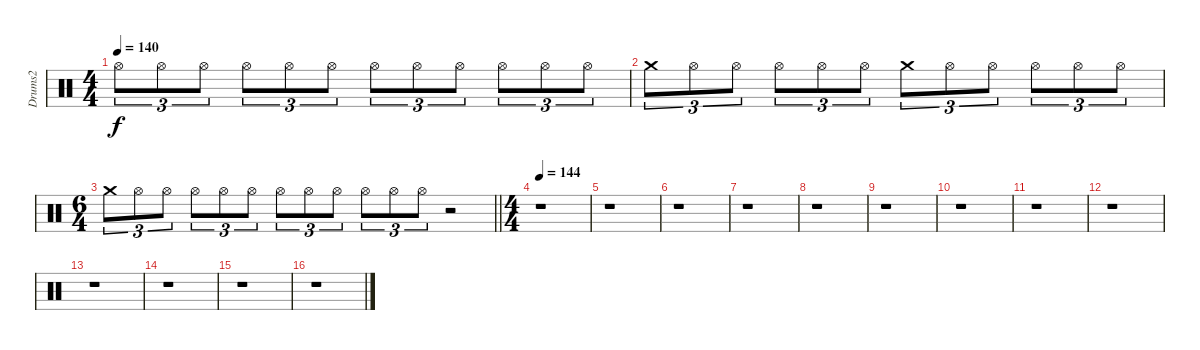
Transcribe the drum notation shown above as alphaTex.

\track ("Drums2" "Drums2") {instrument percussion}
\staff {score}
\articulation defaults
\ts (4 4)
\tempo 140
\clef neutral
\ks c "Hi-Hat (open)".8{tu (3 2) dy f} "Hi-Hat (open)".8{tu (3 2)} "Hi-Hat (open)".8{tu (3 2)} "Hi-Hat (open)".8{tu (3 2)} "Hi-Hat (open)".8{tu (3 2)} "Hi-Hat (open)".8{tu (3 2)} "Hi-Hat (open)".8{tu (3 2)} "Hi-Hat (open)".8{tu (3 2)} "Hi-Hat (open)".8{tu (3 2)} "Hi-Hat (open)".8{tu (3 2)} "Hi-Hat (open)".8{tu (3 2)} "Hi-Hat (open)".8{tu (3 2)}
|
"Crash medium (hit)".8{tu (3 2)} "Hi-Hat (open)".8{tu (3 2)} "Hi-Hat (open)".8{tu (3 2)} "Hi-Hat (open)".8{tu (3 2)} "Hi-Hat (open)".8{tu (3 2)} "Hi-Hat (open)".8{tu (3 2)} "Crash medium (hit)".8{tu (3 2)} "Hi-Hat (open)".8{tu (3 2)} "Hi-Hat (open)".8{tu (3 2)} "Hi-Hat (open)".8{tu (3 2)} "Hi-Hat (open)".8{tu (3 2)} "Hi-Hat (open)".8{tu (3 2)} |
\ts (6 4)
\barLineRight lightlight "Crash medium (hit)".8{tu (3 2)} "Hi-Hat (open)".8{tu (3 2)} "Hi-Hat (open)".8{tu (3 2)} "Hi-Hat (open)".8{tu (3 2)} "Hi-Hat (open)".8{tu (3 2)} "Hi-Hat (open)".8{tu (3 2)} "Hi-Hat (open)".8{tu (3 2)} "Hi-Hat (open)".8{tu (3 2)} "Hi-Hat (open)".8{tu (3 2)} "Hi-Hat (open)".8{tu (3 2)} "Hi-Hat (open)".8{tu (3 2)} "Hi-Hat (open)".8{tu (3 2)}
r.2 |
\ts (4 4)
\tempo 144
r.1 |
r.1 |
r.1 |
r.1 |
r.1 |
r.1 |
r.1 |
r.1 |
r.1 |
r.1 |
r.1 |
r.1 |
r.1
